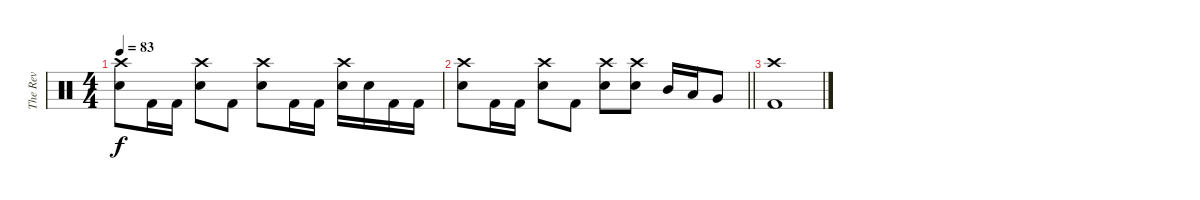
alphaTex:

\track ("The Rev" "The Rev") {instrument percussion}
\staff {score}
\articulation defaults
\ts (4 4)
\tempo 83
\clef neutral
\ks c
("Crash high (hit)" "Snare (hit) 2").8{dy f} "Kick (hit) 2".16 "Kick (hit) 2".16 ("Crash high (hit)" "Snare (hit) 2").8 "Kick (hit) 2".8 ("Crash high (hit)" "Snare (hit) 2").8 "Kick (hit) 2".16 "Kick (hit) 2".16 ("Crash high (hit)" "Snare (hit) 2").16 "Snare (hit) 2".16 "Kick (hit) 2".16 "Kick (hit) 2".16 |
\barLineRight lightlight
("Crash high (hit)" "Snare (hit) 2").8 "Kick (hit) 2".16 "Kick (hit) 2".16 ("Crash high (hit)" "Snare (hit) 2").8 "Kick (hit) 2".8 ("Crash high (hit)" "Snare (hit) 2").8 ("Crash high (hit)" "Snare (hit) 2").8 "Mid Tom (hit)".16 "Low Tom (hit)".16 "Very Low Tom (hit)".8 |
("Crash high (hit)" "Kick (hit) 2").1
